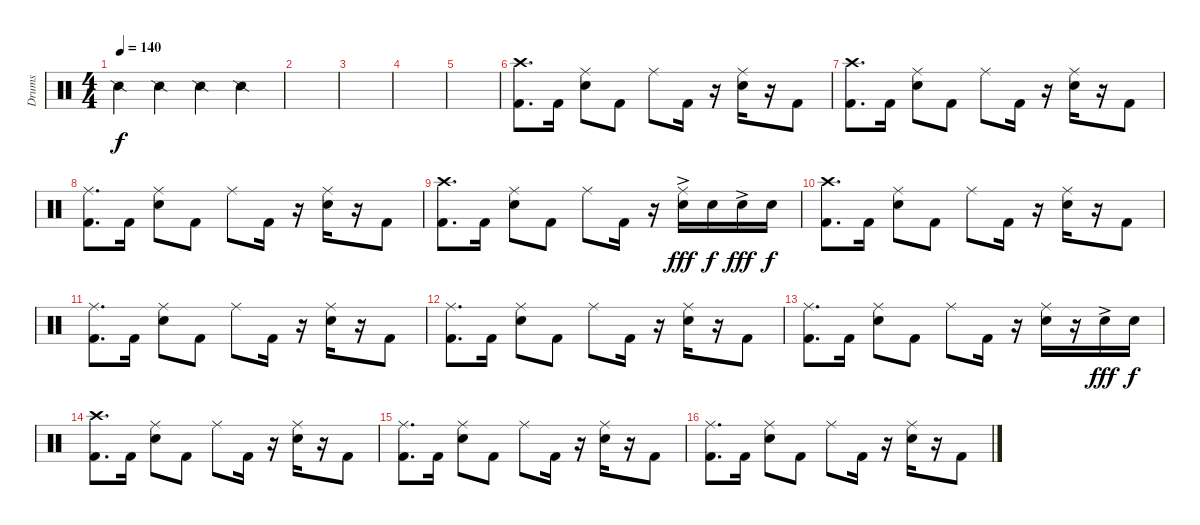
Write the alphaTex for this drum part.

\track ("Drums" "Drums") {instrument percussion}
\staff {score}
\articulation defaults
\ts (4 4)
\tempo 140
\clef neutral
\ks c "Snare (side stick) 2".4{dy f} "Snare (side stick) 2".4 "Snare (side stick) 2".4 "Snare (side stick) 2".4
|
|
|
|
|
("Crash high (hit)" "Kick (hit) 2").8{d} "Kick (hit) 2".16 ("Ride (middle)" "Snare (hit) 2").8 "Kick (hit) 2".8 "Ride (middle)".8 "Kick (hit) 2".16 r.16 ("Ride (middle)" "Snare (hit) 2").16 r.16 "Kick (hit) 2".8 |
("Crash high (hit)" "Kick (hit) 2").8{d} "Kick (hit) 2".16 ("Ride (middle)" "Snare (hit) 2").8 "Kick (hit) 2".8 "Ride (middle)".8 "Kick (hit) 2".16 r.16 ("Ride (middle)" "Snare (hit) 2").16 r.16 "Kick (hit) 2".8 |
("Ride (middle)" "Kick (hit) 2").8{d} "Kick (hit) 2".16 ("Ride (middle)" "Snare (hit) 2").8 "Kick (hit) 2".8 "Ride (middle)".8 "Kick (hit) 2".16 r.16 ("Ride (middle)" "Snare (hit) 2").16 r.16 "Kick (hit) 2".8 |
("Crash high (hit)" "Kick (hit) 2").8{d} "Kick (hit) 2".16 ("Ride (middle)" "Snare (hit) 2").8 "Kick (hit) 2".8 "Ride (middle)".8 "Kick (hit) 2".16 r.16 ("Ride (middle)" "Snare (hit) 2"{ac}).16{dy fff} "Snare (hit) 2".16{dy f} "Snare (hit) 2"{ac}.16{dy fff} "Snare (hit) 2".16{dy f} |
("Crash high (hit)" "Kick (hit) 2").8{d} "Kick (hit) 2".16 ("Ride (middle)" "Snare (hit) 2").8 "Kick (hit) 2".8 "Ride (middle)".8 "Kick (hit) 2".16 r.16 ("Ride (middle)" "Snare (hit) 2").16 r.16 "Kick (hit) 2".8 |
("Ride (middle)" "Kick (hit) 2").8{d} "Kick (hit) 2".16 ("Ride (middle)" "Snare (hit) 2").8 "Kick (hit) 2".8 "Ride (middle)".8 "Kick (hit) 2".16 r.16 ("Ride (middle)" "Snare (hit) 2").16 r.16 "Kick (hit) 2".8 |
("Ride (middle)" "Kick (hit) 2").8{d} "Kick (hit) 2".16 ("Ride (middle)" "Snare (hit) 2").8 "Kick (hit) 2".8 "Ride (middle)".8 "Kick (hit) 2".16 r.16 ("Ride (middle)" "Snare (hit) 2").16 r.16 "Kick (hit) 2".8 |
("Ride (middle)" "Kick (hit) 2").8{d} "Kick (hit) 2".16 ("Ride (middle)" "Snare (hit) 2").8 "Kick (hit) 2".8 "Ride (middle)".8 "Kick (hit) 2".16 r.16 ("Ride (middle)" "Snare (hit) 2").16 r.16 "Snare (hit) 2"{ac}.16{dy fff} "Snare (hit) 2".16{dy f} |
("Crash high (hit)" "Kick (hit) 2").8{d} "Kick (hit) 2".16 ("Ride (middle)" "Snare (hit) 2").8 "Kick (hit) 2".8 "Ride (middle)".8 "Kick (hit) 2".16 r.16 ("Ride (middle)" "Snare (hit) 2").16 r.16 "Kick (hit) 2".8 |
("Ride (middle)" "Kick (hit) 2").8{d} "Kick (hit) 2".16 ("Ride (middle)" "Snare (hit) 2").8 "Kick (hit) 2".8 "Ride (middle)".8 "Kick (hit) 2".16 r.16 ("Ride (middle)" "Snare (hit) 2").16 r.16 "Kick (hit) 2".8 |
("Ride (middle)" "Kick (hit) 2").8{d} "Kick (hit) 2".16 ("Ride (middle)" "Snare (hit) 2").8 "Kick (hit) 2".8 "Ride (middle)".8 "Kick (hit) 2".16 r.16 ("Ride (middle)" "Snare (hit) 2").16 r.16 "Kick (hit) 2".8
